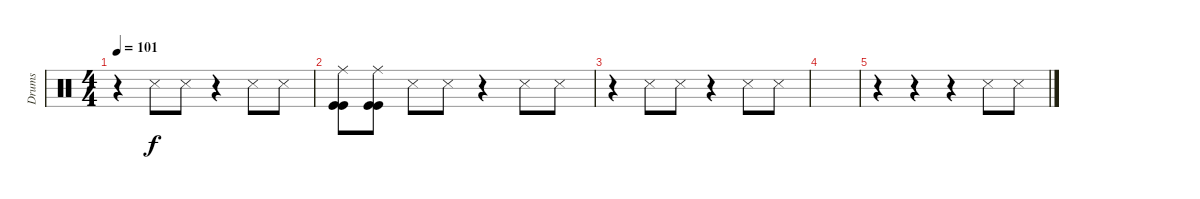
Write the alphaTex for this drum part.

\track ("Drums" "Drums") {instrument percussion}
\staff {score}
\articulation defaults
\ts (4 4)
\tempo 101
\clef neutral
\ks c
r.4{dy f} "Snare (side stick) 3".8 "Snare (side stick) 3".8 r.4 "Snare (side stick) 3".8 "Snare (side stick) 3".8 |
("Ride (middle)" "Kick (hit)" "Kick (hit)").8 ("Ride (middle)" "Kick (hit)" "Kick (hit)").8 "Snare (side stick) 3".8 "Snare (side stick) 3".8 r.4 "Snare (side stick) 3".8 "Snare (side stick) 3".8 |
r.4 "Snare (side stick) 3".8 "Snare (side stick) 3".8 r.4 "Snare (side stick) 3".8 "Snare (side stick) 3".8 |
|
r.4 r.4 r.4 "Snare (side stick) 3".8 "Snare (side stick) 3".8
